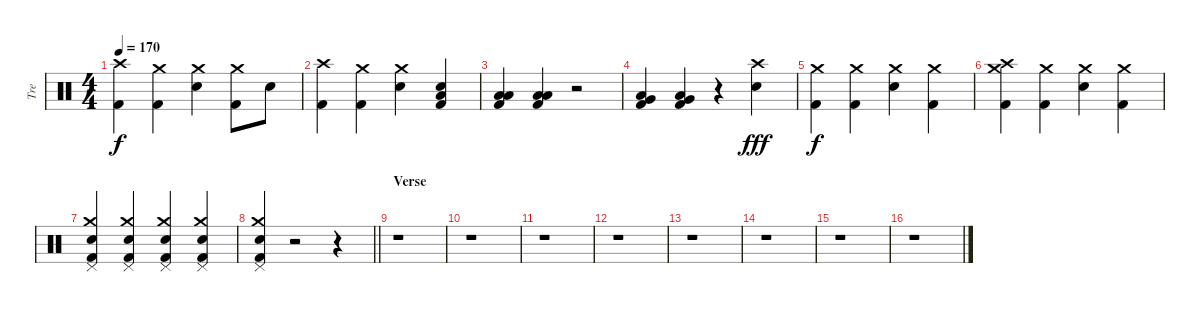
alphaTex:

\track ("Tre" "Tre") {instrument percussion}
\staff {score}
\articulation defaults
\ts (4 4)
\tempo 170
\clef neutral
\ks c
("Crash high (hit)" "Kick (hit) 2").4{dy f} ("Crash medium (hit)" "Kick (hit) 2").4 ("Crash medium (hit)" "Snare (hit) 2").4 ("Crash medium (hit)" "Kick (hit) 2").8 "Snare (hit) 2".8 |
("Crash high (hit)" "Kick (hit) 2").4 ("Crash medium (hit)" "Kick (hit) 2").4 ("Crash medium (hit)" "Snare (hit) 2").4 ("Snare (hit) 2" "Low Floor Tom (hit)" "Kick (hit) 2").4 |
("Low Tom (hit)" "Low Floor Tom (hit)" "Kick (hit) 2").4 ("Low Tom (hit)" "Low Floor Tom (hit)" "Kick (hit) 2").4 r.2 |
("Very Low Tom (hit)" "Low Floor Tom (hit)" "Kick (hit) 2").4 ("Very Low Tom (hit)" "Low Floor Tom (hit)" "Kick (hit) 2").4 r.4 ("Crash high (hit)" "Snare (hit) 2").4{dy fff} |
("Crash medium (hit)" "Kick (hit) 2").4{dy f} ("Crash medium (hit)" "Kick (hit) 2").4 ("Crash medium (hit)" "Snare (hit) 2").4 ("Crash medium (hit)" "Kick (hit) 2").4 |
("Crash medium (hit)" "Crash high (hit)" "Kick (hit) 2").4 ("Crash medium (hit)" "Kick (hit) 2").4 ("Crash medium (hit)" "Snare (hit) 2").4 ("Crash medium (hit)" "Kick (hit) 2").4 |
("Crash medium (hit)" "Snare (hit) 2" "Pedal Hi-Hat (hit)" "Kick (hit) 2").4 ("Crash medium (hit)" "Snare (hit) 2" "Pedal Hi-Hat (hit)" "Kick (hit) 2").4 ("Crash medium (hit)" "Snare (hit) 2" "Pedal Hi-Hat (hit)" "Kick (hit) 2").4 ("Crash medium (hit)" "Snare (hit) 2" "Pedal Hi-Hat (hit)" "Kick (hit) 2").4 |
\barLineRight lightlight
("Crash medium (hit)" "Snare (hit) 2" "Pedal Hi-Hat (hit)" "Kick (hit) 2").4 r.2 r.4 |
\section ("" "Verse")
r.1 |
r.1 |
r.1 |
r.1 |
r.1 |
r.1 |
r.1 |
r.1
